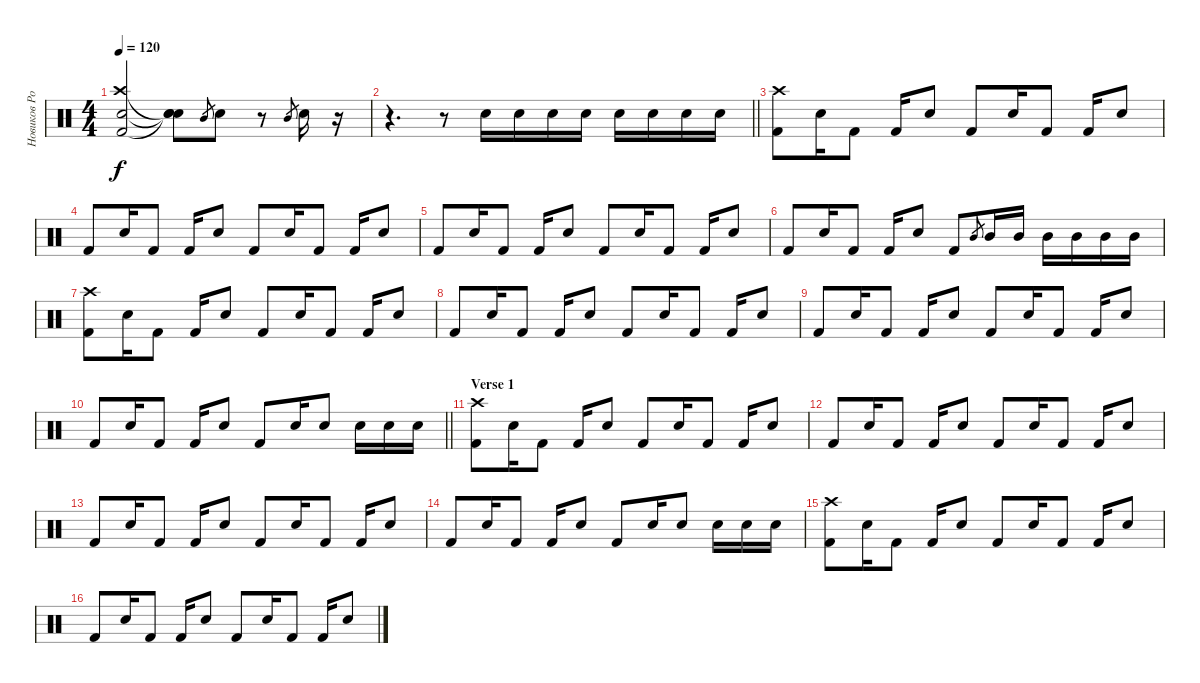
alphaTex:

\track ("Новиков Роман ( Ударные )" "Новиков Ро") {instrument percussion}
\staff {score}
\articulation defaults
\ts (4 4)
\tempo 120
\clef neutral
\ks c
("Snare (hit) 2" "Crash high (hit)" "Kick (hit) 2").2{dy f} ("Snare (hit) 2"{t} "Snare (hit)"{t} "Snare (hit)"{t}).8 "Mid Tom (hit)"{h}.8{gr} "Snare (hit) 2".8 r.8 "Mid Tom (hit)"{h}.8{gr} "Snare (hit) 2".16 r.16 |
\barLineRight lightlight
r.4{d} r.8 "Snare (hit) 2".16 "Snare (hit) 2".16 "Snare (hit) 2".16 "Snare (hit) 2".16 "Snare (hit) 2".16 "Snare (hit) 2".16 "Snare (hit) 2".16 "Snare (hit) 2".16 |
\section ("" "")
("Crash high (hit)" "Kick (hit) 2").8 "Electric Snare (hit)".16 "Kick (hit) 2".8 "Kick (hit) 2".16 "Electric Snare (hit)".8 "Kick (hit) 2".8 "Electric Snare (hit)".16 "Kick (hit) 2".8 "Kick (hit) 2".16 "Electric Snare (hit)".8 |
"Kick (hit) 2".8 "Electric Snare (hit)".16 "Kick (hit) 2".8 "Kick (hit) 2".16 "Electric Snare (hit)".8 "Kick (hit) 2".8 "Electric Snare (hit)".16 "Kick (hit) 2".8 "Kick (hit) 2".16 "Electric Snare (hit)".8 |
"Kick (hit) 2".8 "Electric Snare (hit)".16 "Kick (hit) 2".8 "Kick (hit) 2".16 "Electric Snare (hit)".8 "Kick (hit) 2".8 "Electric Snare (hit)".16 "Kick (hit) 2".8 "Kick (hit) 2".16 "Electric Snare (hit)".8 |
"Kick (hit) 2".8 "Electric Snare (hit)".16 "Kick (hit) 2".8 "Kick (hit) 2".16 "Electric Snare (hit)".8 "Kick (hit) 2".8 "Mid Tom (hit)"{h}.8{gr} "Mid Tom (hit)".16 "Mid Tom (hit)".16 "Mid Tom (hit)".16 "Mid Tom (hit)".16 "Mid Tom (hit)".16 "Mid Tom (hit)".16 |
("Crash high (hit)" "Kick (hit) 2").8 "Electric Snare (hit)".16 "Kick (hit) 2".8 "Kick (hit) 2".16 "Electric Snare (hit)".8 "Kick (hit) 2".8 "Electric Snare (hit)".16 "Kick (hit) 2".8 "Kick (hit) 2".16 "Electric Snare (hit)".8 |
"Kick (hit) 2".8 "Electric Snare (hit)".16 "Kick (hit) 2".8 "Kick (hit) 2".16 "Electric Snare (hit)".8 "Kick (hit) 2".8 "Electric Snare (hit)".16 "Kick (hit) 2".8 "Kick (hit) 2".16 "Electric Snare (hit)".8 |
"Kick (hit) 2".8 "Electric Snare (hit)".16 "Kick (hit) 2".8 "Kick (hit) 2".16 "Electric Snare (hit)".8 "Kick (hit) 2".8 "Electric Snare (hit)".16 "Kick (hit) 2".8 "Kick (hit) 2".16 "Electric Snare (hit)".8 |
\barLineRight lightlight "Kick (hit) 2".8 "Electric Snare (hit)".16 "Kick (hit) 2".8 "Kick (hit) 2".16 "Electric Snare (hit)".8 "Kick (hit) 2".8 "Electric Snare (hit)".16 "Snare (hit) 2".8 "Snare (hit) 2".16 "Snare (hit) 2".16 "Snare (hit) 2".16
|
\section ("" "Verse 1")
("Crash high (hit)" "Kick (hit) 2").8 "Electric Snare (hit)".16 "Kick (hit) 2".8 "Kick (hit) 2".16 "Electric Snare (hit)".8 "Kick (hit) 2".8 "Electric Snare (hit)".16 "Kick (hit) 2".8 "Kick (hit) 2".16 "Electric Snare (hit)".8 |
"Kick (hit) 2".8 "Electric Snare (hit)".16 "Kick (hit) 2".8 "Kick (hit) 2".16 "Electric Snare (hit)".8 "Kick (hit) 2".8 "Electric Snare (hit)".16 "Kick (hit) 2".8 "Kick (hit) 2".16 "Electric Snare (hit)".8 |
"Kick (hit) 2".8 "Electric Snare (hit)".16 "Kick (hit) 2".8 "Kick (hit) 2".16 "Electric Snare (hit)".8 "Kick (hit) 2".8 "Electric Snare (hit)".16 "Kick (hit) 2".8 "Kick (hit) 2".16 "Electric Snare (hit)".8 |
"Kick (hit) 2".8 "Electric Snare (hit)".16 "Kick (hit) 2".8 "Kick (hit) 2".16 "Electric Snare (hit)".8 "Kick (hit) 2".8 "Electric Snare (hit)".16 "Snare (hit) 2".8 "Snare (hit) 2".16 "Snare (hit) 2".16 "Snare (hit) 2".16 |
("Crash high (hit)" "Kick (hit) 2").8 "Electric Snare (hit)".16 "Kick (hit) 2".8 "Kick (hit) 2".16 "Electric Snare (hit)".8 "Kick (hit) 2".8 "Electric Snare (hit)".16 "Kick (hit) 2".8 "Kick (hit) 2".16 "Electric Snare (hit)".8 |
"Kick (hit) 2".8 "Electric Snare (hit)".16 "Kick (hit) 2".8 "Kick (hit) 2".16 "Electric Snare (hit)".8 "Kick (hit) 2".8 "Electric Snare (hit)".16 "Kick (hit) 2".8 "Kick (hit) 2".16 "Electric Snare (hit)".8
